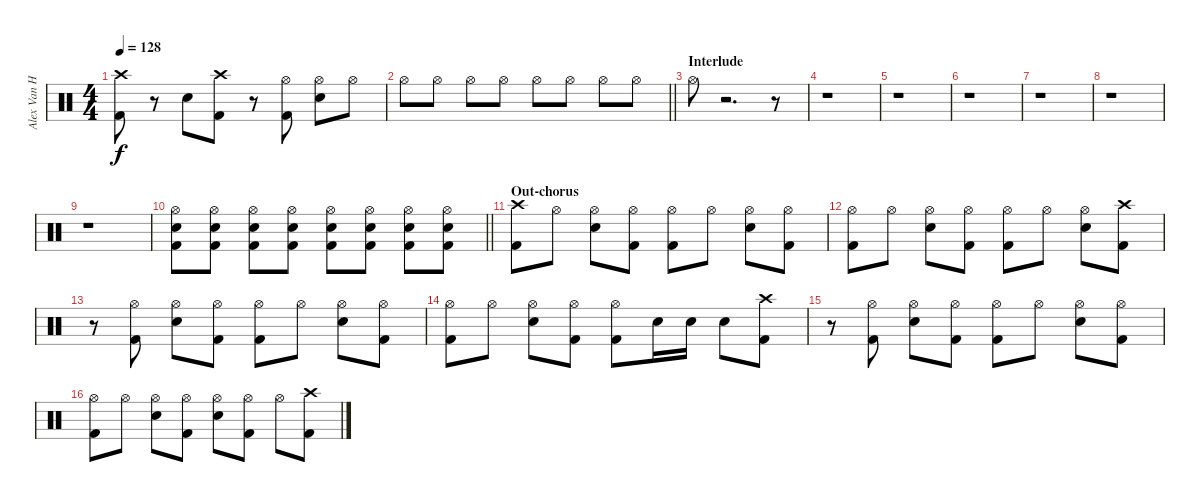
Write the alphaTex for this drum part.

\track ("Alex Van Halen" "Alex Van H") {instrument percussion}
\staff {score}
\articulation defaults
\ts (4 4)
\tempo 128
\clef neutral
\ks c
("Kick (hit) 2" "Crash high (hit)").8{dy f} r.8 "Snare (hit) 2".8 ("Kick (hit) 2" "Crash high (hit)").8 r.8 ("Kick (hit) 2" "Hi-Hat (open)").8 ("Snare (hit) 2" "Hi-Hat (open)").8 "Hi-Hat (open)".8 |
\barLineRight lightlight "Hi-Hat (open)".8 "Hi-Hat (open)".8 "Hi-Hat (open)".8 "Hi-Hat (open)".8 "Hi-Hat (open)".8 "Hi-Hat (open)".8 "Hi-Hat (open)".8 "Hi-Hat (open)".8
|
\section ("" "Interlude")
"Hi-Hat (open)".8 r.2{d} r.8 |
r.1 |
r.1 |
r.1 |
r.1 |
r.1 |
r.1 |
\barLineRight lightlight
("Snare (hit) 2" "Kick (hit) 2" "Hi-Hat (open)").8 ("Kick (hit) 2" "Snare (hit) 2" "Hi-Hat (open)").8 ("Kick (hit) 2" "Snare (hit) 2" "Hi-Hat (open)").8 ("Snare (hit) 2" "Kick (hit) 2" "Hi-Hat (open)").8 ("Snare (hit) 2" "Kick (hit) 2" "Hi-Hat (open)").8 ("Snare (hit) 2" "Kick (hit) 2" "Hi-Hat (open)").8 ("Snare (hit) 2" "Kick (hit) 2" "Hi-Hat (open)").8 ("Snare (hit) 2" "Kick (hit) 2" "Hi-Hat (open)").8 |
\section ("" "Out-chorus")
("Kick (hit) 2" "Crash high (hit)").8 "Hi-Hat (open)".8 ("Snare (hit) 2" "Hi-Hat (open)").8 ("Kick (hit) 2" "Hi-Hat (open)").8 ("Kick (hit) 2" "Hi-Hat (open)").8 "Hi-Hat (open)".8 ("Snare (hit) 2" "Hi-Hat (open)").8 ("Kick (hit) 2" "Hi-Hat (open)").8 |
("Kick (hit) 2" "Hi-Hat (open)").8 "Hi-Hat (open)".8 ("Snare (hit) 2" "Hi-Hat (open)").8 ("Kick (hit) 2" "Hi-Hat (open)").8 ("Kick (hit) 2" "Hi-Hat (open)").8 "Hi-Hat (open)".8 ("Snare (hit) 2" "Hi-Hat (open)").8 ("Kick (hit) 2" "Crash high (hit)").8 |
r.8 ("Kick (hit) 2" "Hi-Hat (open)").8 ("Snare (hit) 2" "Hi-Hat (open)").8 ("Kick (hit) 2" "Hi-Hat (open)").8 ("Kick (hit) 2" "Hi-Hat (open)").8 "Hi-Hat (open)".8 ("Snare (hit) 2" "Hi-Hat (open)").8 ("Kick (hit) 2" "Hi-Hat (open)").8 |
("Kick (hit) 2" "Hi-Hat (open)").8 "Hi-Hat (open)".8 ("Snare (hit) 2" "Hi-Hat (open)").8 ("Kick (hit) 2" "Hi-Hat (open)").8 ("Kick (hit) 2" "Hi-Hat (open)").8 "Snare (hit) 2".16 "Snare (hit) 2".16 "Snare (hit) 2".8 ("Kick (hit) 2" "Crash high (hit)").8 |
r.8 ("Kick (hit) 2" "Hi-Hat (open)").8 ("Snare (hit) 2" "Hi-Hat (open)").8 ("Kick (hit) 2" "Hi-Hat (open)").8 ("Kick (hit) 2" "Hi-Hat (open)").8 "Hi-Hat (open)".8 ("Snare (hit) 2" "Hi-Hat (open)").8 ("Kick (hit) 2" "Hi-Hat (open)").8 |
("Kick (hit) 2" "Hi-Hat (open)").8 "Hi-Hat (open)".8 ("Snare (hit) 2" "Hi-Hat (open)").8 ("Kick (hit) 2" "Hi-Hat (open)").8 ("Snare (hit) 2" "Hi-Hat (open)").8 ("Kick (hit) 2" "Hi-Hat (open)").8 "Hi-Hat (open)".8 ("Crash high (hit)" "Kick (hit) 2").8
